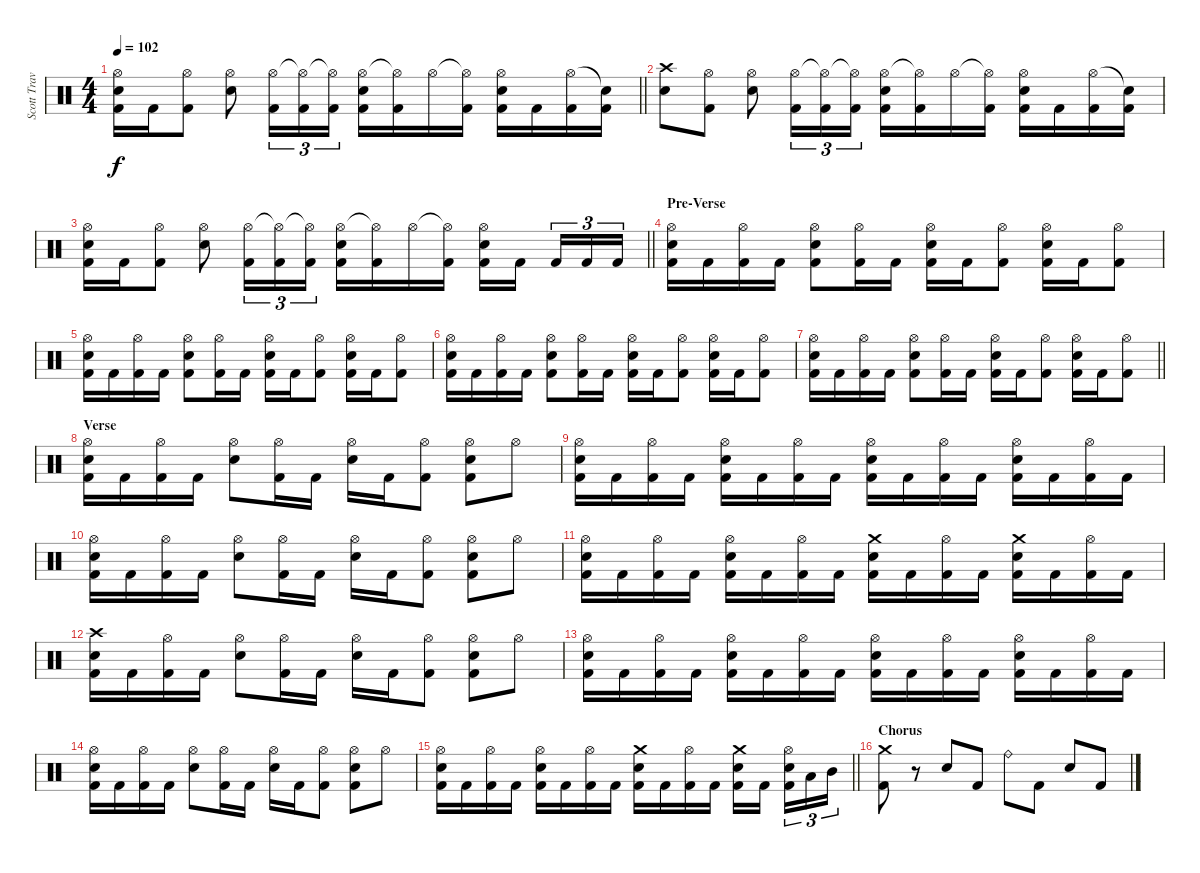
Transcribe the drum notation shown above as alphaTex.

\track ("Scott Travis" "Scott Trav") {instrument percussion}
\staff {score}
\articulation defaults
\ts (4 4)
\tempo 102
\clef neutral
\barLineRight lightlight
\ks c
("Hi-Hat (open)" "Snare (hit) 2" "Kick (hit) 2").16{dy f} "Kick (hit) 2".16 ("Hi-Hat (open)" "Kick (hit) 2").8 ("Hi-Hat (open)" "Snare (hit) 2").8 ("Hi-Hat (open)" "Kick (hit) 2").16{tu (3 2)} ("Hi-Hat (open)"{t} "Kick (hit) 2").16{tu (3 2)} ("Hi-Hat (open)"{t} "Kick (hit) 2").16{tu (3 2)} ("Hi-Hat (open)" "Snare (hit) 2" "Kick (hit) 2").16 ("Hi-Hat (open)"{t} "Kick (hit) 2").16 "Hi-Hat (open)".16 ("Hi-Hat (open)"{t} "Kick (hit) 2").16 ("Hi-Hat (open)" "Snare (hit) 2" "Kick (hit) 2").16 "Kick (hit) 2".16 ("Hi-Hat (open)" "Kick (hit) 2").16 ("Snare (hit)"{t} "Kick (hit) 2").16 |
("Crash high (hit)" "Snare (hit) 2").8 ("Hi-Hat (open)" "Kick (hit) 2").8 ("Hi-Hat (open)" "Snare (hit) 2").8 ("Hi-Hat (open)" "Kick (hit) 2").16{tu (3 2)} ("Hi-Hat (open)"{t} "Kick (hit) 2").16{tu (3 2)} ("Hi-Hat (open)"{t} "Kick (hit) 2").16{tu (3 2)} ("Hi-Hat (open)" "Snare (hit) 2" "Kick (hit) 2").16 ("Hi-Hat (open)"{t} "Kick (hit) 2").16 "Hi-Hat (open)".16 ("Hi-Hat (open)"{t} "Kick (hit) 2").16 ("Hi-Hat (open)" "Snare (hit) 2" "Kick (hit) 2").16 "Kick (hit) 2".16 ("Hi-Hat (open)" "Kick (hit) 2").16 ("Snare (hit)"{t} "Kick (hit) 2").16 |
\barLineRight lightlight
("Hi-Hat (open)" "Snare (hit) 2" "Kick (hit) 2").16 "Kick (hit) 2".16 ("Hi-Hat (open)" "Kick (hit) 2").8 ("Hi-Hat (open)" "Snare (hit) 2").8 ("Hi-Hat (open)" "Kick (hit) 2").16{tu (3 2)} ("Hi-Hat (open)"{t} "Kick (hit) 2").16{tu (3 2)} ("Hi-Hat (open)"{t} "Kick (hit) 2").16{tu (3 2)} ("Hi-Hat (open)" "Snare (hit) 2" "Kick (hit) 2").16 ("Hi-Hat (open)"{t} "Kick (hit) 2").16 "Hi-Hat (open)".16 ("Hi-Hat (open)"{t} "Kick (hit) 2").16 ("Hi-Hat (open)" "Snare (hit) 2" "Kick (hit) 2").16 "Kick (hit) 2".16{beam splitsecondary} "Kick (hit) 2".16{tu (3 2)} "Kick (hit) 2".16{tu (3 2)} "Kick (hit) 2".16{tu (3 2)} |
\section ("" "Pre-Verse")
("Hi-Hat (open)" "Snare (hit) 2" "Kick (hit) 2").16 "Kick (hit) 2".16 ("Hi-Hat (open)" "Kick (hit) 2").16 "Kick (hit) 2".16 ("Hi-Hat (open)" "Snare (hit) 2" "Kick (hit) 2").8 ("Hi-Hat (open)" "Kick (hit) 2").16 "Kick (hit) 2".16 ("Hi-Hat (open)" "Snare (hit) 2" "Kick (hit) 2").16 "Kick (hit) 2".16 ("Hi-Hat (open)" "Kick (hit) 2").8 ("Hi-Hat (open)" "Snare (hit) 2" "Kick (hit) 2").16 "Kick (hit) 2".16 ("Hi-Hat (open)" "Kick (hit) 2").8 |
("Hi-Hat (open)" "Snare (hit) 2" "Kick (hit) 2").16 "Kick (hit) 2".16 ("Hi-Hat (open)" "Kick (hit) 2").16 "Kick (hit) 2".16 ("Hi-Hat (open)" "Snare (hit) 2" "Kick (hit) 2").8 ("Hi-Hat (open)" "Kick (hit) 2").16 "Kick (hit) 2".16 ("Hi-Hat (open)" "Snare (hit) 2" "Kick (hit) 2").16 "Kick (hit) 2".16 ("Hi-Hat (open)" "Kick (hit) 2").8 ("Hi-Hat (open)" "Snare (hit) 2" "Kick (hit) 2").16 "Kick (hit) 2".16 ("Hi-Hat (open)" "Kick (hit) 2").8 |
("Hi-Hat (open)" "Snare (hit) 2" "Kick (hit) 2").16 "Kick (hit) 2".16 ("Hi-Hat (open)" "Kick (hit) 2").16 "Kick (hit) 2".16 ("Hi-Hat (open)" "Snare (hit) 2" "Kick (hit) 2").8 ("Hi-Hat (open)" "Kick (hit) 2").16 "Kick (hit) 2".16 ("Hi-Hat (open)" "Snare (hit) 2" "Kick (hit) 2").16 "Kick (hit) 2".16 ("Hi-Hat (open)" "Kick (hit) 2").8 ("Hi-Hat (open)" "Snare (hit) 2" "Kick (hit) 2").16 "Kick (hit) 2".16 ("Hi-Hat (open)" "Kick (hit) 2").8 |
\barLineRight lightlight
("Hi-Hat (open)" "Snare (hit) 2" "Kick (hit) 2").16 "Kick (hit) 2".16 ("Hi-Hat (open)" "Kick (hit) 2").16 "Kick (hit) 2".16 ("Hi-Hat (open)" "Snare (hit) 2" "Kick (hit) 2").8 ("Hi-Hat (open)" "Kick (hit) 2").16 "Kick (hit) 2".16 ("Hi-Hat (open)" "Snare (hit) 2" "Kick (hit) 2").16 "Kick (hit) 2".16 ("Hi-Hat (open)" "Kick (hit) 2").8 ("Hi-Hat (open)" "Snare (hit) 2" "Kick (hit) 2").16 "Kick (hit) 2".16 ("Hi-Hat (open)" "Kick (hit) 2").8 |
\section ("" "Verse")
("Hi-Hat (open)" "Snare (hit) 2" "Kick (hit) 2").16 "Kick (hit) 2".16 ("Hi-Hat (open)" "Kick (hit) 2").16 "Kick (hit) 2".16 ("Hi-Hat (open)" "Snare (hit) 2").8 ("Hi-Hat (open)" "Kick (hit) 2").16 "Kick (hit) 2".16 ("Hi-Hat (open)" "Snare (hit) 2").16 "Kick (hit) 2".16 ("Hi-Hat (open)" "Kick (hit) 2").8 ("Hi-Hat (open)" "Snare (hit) 2" "Kick (hit) 2").8 "Hi-Hat (open)".8 |
("Hi-Hat (open)" "Snare (hit) 2" "Kick (hit) 2").16 "Kick (hit) 2".16 ("Hi-Hat (open)" "Kick (hit) 2").16 "Kick (hit) 2".16 ("Hi-Hat (open)" "Snare (hit) 2" "Kick (hit) 2").16 "Kick (hit) 2".16 ("Hi-Hat (open)" "Kick (hit) 2").16 "Kick (hit) 2".16 ("Hi-Hat (open)" "Snare (hit) 2" "Kick (hit) 2").16 "Kick (hit) 2".16 ("Hi-Hat (open)" "Kick (hit) 2").16 "Kick (hit) 2".16 ("Hi-Hat (open)" "Snare (hit) 2" "Kick (hit) 2").16 "Kick (hit) 2".16 ("Hi-Hat (open)" "Kick (hit) 2").16 "Kick (hit) 2".16 |
("Hi-Hat (open)" "Snare (hit) 2" "Kick (hit) 2").16 "Kick (hit) 2".16 ("Hi-Hat (open)" "Kick (hit) 2").16 "Kick (hit) 2".16 ("Hi-Hat (open)" "Snare (hit) 2").8 ("Hi-Hat (open)" "Kick (hit) 2").16 "Kick (hit) 2".16 ("Hi-Hat (open)" "Snare (hit) 2").16 "Kick (hit) 2".16 ("Hi-Hat (open)" "Kick (hit) 2").8 ("Hi-Hat (open)" "Snare (hit) 2" "Kick (hit) 2").8 "Hi-Hat (open)".8 |
("Hi-Hat (open)" "Snare (hit) 2" "Kick (hit) 2").16 "Kick (hit) 2".16 ("Hi-Hat (open)" "Kick (hit) 2").16 "Kick (hit) 2".16 ("Hi-Hat (open)" "Snare (hit) 2" "Kick (hit) 2").16 "Kick (hit) 2".16 ("Hi-Hat (open)" "Kick (hit) 2").16 "Kick (hit) 2".16 ("Crash medium (hit)" "Snare (hit) 2" "Kick (hit) 2").16 "Kick (hit) 2".16 ("Hi-Hat (open)" "Kick (hit) 2").16 "Kick (hit) 2".16 ("Crash medium (hit)" "Snare (hit) 2" "Kick (hit) 2").16 "Kick (hit) 2".16 ("Hi-Hat (open)" "Kick (hit) 2").16 "Kick (hit) 2".16 |
("Crash high (hit)" "Snare (hit) 2" "Kick (hit) 2").16 "Kick (hit) 2".16 ("Hi-Hat (open)" "Kick (hit) 2").16 "Kick (hit) 2".16 ("Hi-Hat (open)" "Snare (hit) 2").8 ("Hi-Hat (open)" "Kick (hit) 2").16 "Kick (hit) 2".16 ("Hi-Hat (open)" "Snare (hit) 2").16 "Kick (hit) 2".16 ("Hi-Hat (open)" "Kick (hit) 2").8 ("Hi-Hat (open)" "Snare (hit) 2" "Kick (hit) 2").8 "Hi-Hat (open)".8 |
("Hi-Hat (open)" "Snare (hit) 2" "Kick (hit) 2").16 "Kick (hit) 2".16 ("Hi-Hat (open)" "Kick (hit) 2").16 "Kick (hit) 2".16 ("Hi-Hat (open)" "Snare (hit) 2" "Kick (hit) 2").16 "Kick (hit) 2".16 ("Hi-Hat (open)" "Kick (hit) 2").16 "Kick (hit) 2".16 ("Hi-Hat (open)" "Snare (hit) 2" "Kick (hit) 2").16 "Kick (hit) 2".16 ("Hi-Hat (open)" "Kick (hit) 2").16 "Kick (hit) 2".16 ("Hi-Hat (open)" "Snare (hit) 2" "Kick (hit) 2").16 "Kick (hit) 2".16 ("Hi-Hat (open)" "Kick (hit) 2").16 "Kick (hit) 2".16 |
("Hi-Hat (open)" "Snare (hit) 2" "Kick (hit) 2").16 "Kick (hit) 2".16 ("Hi-Hat (open)" "Kick (hit) 2").16 "Kick (hit) 2".16 ("Hi-Hat (open)" "Snare (hit) 2").8 ("Hi-Hat (open)" "Kick (hit) 2").16 "Kick (hit) 2".16 ("Hi-Hat (open)" "Snare (hit) 2").16 "Kick (hit) 2".16 ("Hi-Hat (open)" "Kick (hit) 2").8 ("Hi-Hat (open)" "Snare (hit) 2" "Kick (hit) 2").8 "Hi-Hat (open)".8 |
\barLineRight lightlight
("Hi-Hat (open)" "Snare (hit) 2" "Kick (hit) 2").16 "Kick (hit) 2".16 ("Hi-Hat (open)" "Kick (hit) 2").16 "Kick (hit) 2".16 ("Hi-Hat (open)" "Snare (hit) 2" "Kick (hit) 2").16 "Kick (hit) 2".16 ("Hi-Hat (open)" "Kick (hit) 2").16 "Kick (hit) 2".16 ("Crash medium (hit)" "Snare (hit) 2" "Kick (hit) 2").16 "Kick (hit) 2".16 ("Hi-Hat (open)" "Kick (hit) 2").16 "Kick (hit) 2".16 ("Crash medium (hit)" "Snare (hit) 2" "Kick (hit) 2").16 "Kick (hit) 2".16{beam splitsecondary} ("Hi-Hat (open)" "Snare (hit) 2" "Kick (hit) 2").16{tu (3 2)} "Low Tom (hit)".16{tu (3 2)} "Mid Tom (hit)".16{tu (3 2)} |
\section ("" "Chorus")
("Crash medium (hit)" "Kick (hit) 2").8 r.8 "Snare (hit) 2".8 "Kick (hit) 2".8 "Ride (bell)".8 "Kick (hit) 2".8 "Snare (hit) 2".8 "Kick (hit) 2".8
